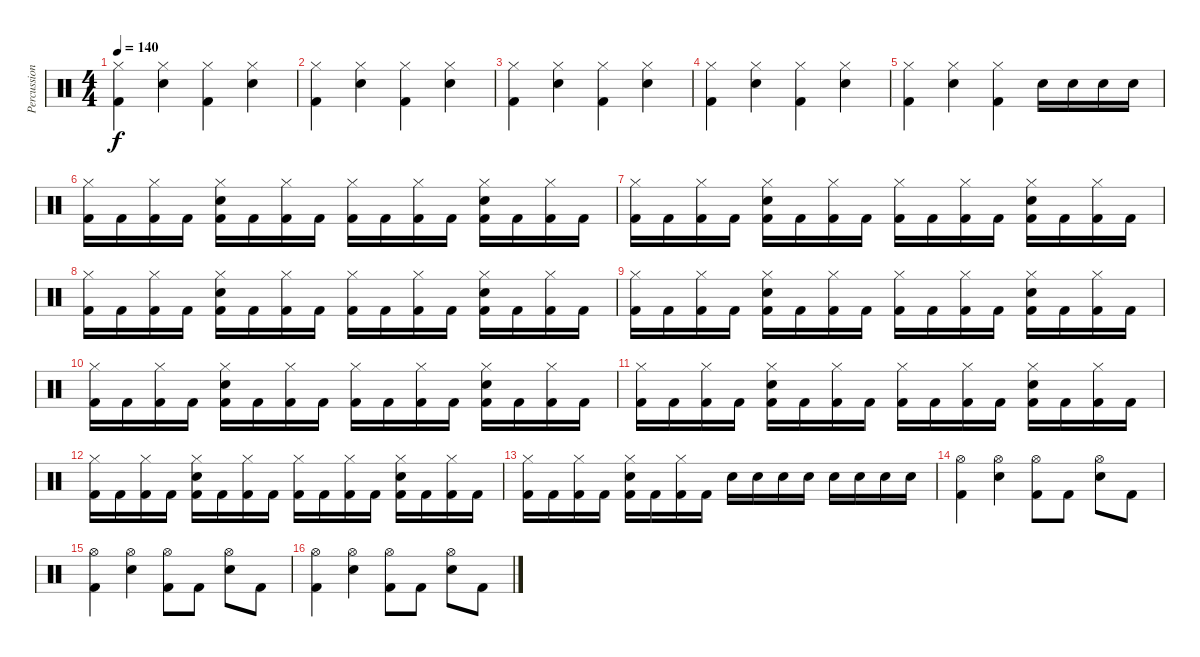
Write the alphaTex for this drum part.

\track ("Percussion" "Percussion") {instrument percussion}
\staff {score}
\articulation defaults
\ts (4 4)
\tempo 140
\clef neutral
\ks c
("Hi-Hat (closed)" "Kick (hit) 2").4{dy f} ("Hi-Hat (closed)" "Electric Snare (hit)").4 ("Hi-Hat (closed)" "Kick (hit) 2").4 ("Hi-Hat (closed)" "Electric Snare (hit)").4 |
("Hi-Hat (closed)" "Kick (hit) 2").4 ("Hi-Hat (closed)" "Electric Snare (hit)").4 ("Hi-Hat (closed)" "Kick (hit) 2").4 ("Hi-Hat (closed)" "Electric Snare (hit)").4 |
("Hi-Hat (closed)" "Kick (hit) 2").4 ("Hi-Hat (closed)" "Electric Snare (hit)").4 ("Hi-Hat (closed)" "Kick (hit) 2").4 ("Hi-Hat (closed)" "Electric Snare (hit)").4 |
("Hi-Hat (closed)" "Kick (hit) 2").4 ("Hi-Hat (closed)" "Electric Snare (hit)").4 ("Hi-Hat (closed)" "Kick (hit) 2").4 ("Hi-Hat (closed)" "Electric Snare (hit)").4 |
("Hi-Hat (closed)" "Kick (hit) 2").4 ("Hi-Hat (closed)" "Electric Snare (hit)").4 ("Hi-Hat (closed)" "Kick (hit) 2").4 "Electric Snare (hit)".16 "Electric Snare (hit)".16 "Electric Snare (hit)".16 "Electric Snare (hit)".16 |
("Hi-Hat (closed)" "Kick (hit) 2").16 "Kick (hit) 2".16 ("Hi-Hat (closed)" "Kick (hit) 2").16 "Kick (hit) 2".16 ("Hi-Hat (closed)" "Electric Snare (hit)" "Kick (hit) 2").16 "Kick (hit) 2".16 ("Hi-Hat (closed)" "Kick (hit) 2").16 "Kick (hit) 2".16 ("Hi-Hat (closed)" "Kick (hit) 2").16 "Kick (hit) 2".16 ("Hi-Hat (closed)" "Kick (hit) 2").16 "Kick (hit) 2".16 ("Hi-Hat (closed)" "Electric Snare (hit)" "Kick (hit) 2").16 "Kick (hit) 2".16 ("Hi-Hat (closed)" "Kick (hit) 2").16 "Kick (hit) 2".16 |
("Hi-Hat (closed)" "Kick (hit) 2").16 "Kick (hit) 2".16 ("Hi-Hat (closed)" "Kick (hit) 2").16 "Kick (hit) 2".16 ("Hi-Hat (closed)" "Electric Snare (hit)" "Kick (hit) 2").16 "Kick (hit) 2".16 ("Hi-Hat (closed)" "Kick (hit) 2").16 "Kick (hit) 2".16 ("Hi-Hat (closed)" "Kick (hit) 2").16 "Kick (hit) 2".16 ("Hi-Hat (closed)" "Kick (hit) 2").16 "Kick (hit) 2".16 ("Hi-Hat (closed)" "Electric Snare (hit)" "Kick (hit) 2").16 "Kick (hit) 2".16 ("Hi-Hat (closed)" "Kick (hit) 2").16 "Kick (hit) 2".16 |
("Hi-Hat (closed)" "Kick (hit) 2").16 "Kick (hit) 2".16 ("Hi-Hat (closed)" "Kick (hit) 2").16 "Kick (hit) 2".16 ("Hi-Hat (closed)" "Electric Snare (hit)" "Kick (hit) 2").16 "Kick (hit) 2".16 ("Hi-Hat (closed)" "Kick (hit) 2").16 "Kick (hit) 2".16 ("Hi-Hat (closed)" "Kick (hit) 2").16 "Kick (hit) 2".16 ("Hi-Hat (closed)" "Kick (hit) 2").16 "Kick (hit) 2".16 ("Hi-Hat (closed)" "Electric Snare (hit)" "Kick (hit) 2").16 "Kick (hit) 2".16 ("Hi-Hat (closed)" "Kick (hit) 2").16 "Kick (hit) 2".16 |
("Hi-Hat (closed)" "Kick (hit) 2").16 "Kick (hit) 2".16 ("Hi-Hat (closed)" "Kick (hit) 2").16 "Kick (hit) 2".16 ("Hi-Hat (closed)" "Electric Snare (hit)" "Kick (hit) 2").16 "Kick (hit) 2".16 ("Hi-Hat (closed)" "Kick (hit) 2").16 "Kick (hit) 2".16 ("Hi-Hat (closed)" "Kick (hit) 2").16 "Kick (hit) 2".16 ("Hi-Hat (closed)" "Kick (hit) 2").16 "Kick (hit) 2".16 ("Hi-Hat (closed)" "Electric Snare (hit)" "Kick (hit) 2").16 "Kick (hit) 2".16 ("Hi-Hat (closed)" "Kick (hit) 2").16 "Kick (hit) 2".16 |
("Hi-Hat (closed)" "Kick (hit) 2").16 "Kick (hit) 2".16 ("Hi-Hat (closed)" "Kick (hit) 2").16 "Kick (hit) 2".16 ("Hi-Hat (closed)" "Electric Snare (hit)" "Kick (hit) 2").16 "Kick (hit) 2".16 ("Hi-Hat (closed)" "Kick (hit) 2").16 "Kick (hit) 2".16 ("Hi-Hat (closed)" "Kick (hit) 2").16 "Kick (hit) 2".16 ("Hi-Hat (closed)" "Kick (hit) 2").16 "Kick (hit) 2".16 ("Hi-Hat (closed)" "Electric Snare (hit)" "Kick (hit) 2").16 "Kick (hit) 2".16 ("Hi-Hat (closed)" "Kick (hit) 2").16 "Kick (hit) 2".16 |
("Hi-Hat (closed)" "Kick (hit) 2").16 "Kick (hit) 2".16 ("Hi-Hat (closed)" "Kick (hit) 2").16 "Kick (hit) 2".16 ("Hi-Hat (closed)" "Electric Snare (hit)" "Kick (hit) 2").16 "Kick (hit) 2".16 ("Hi-Hat (closed)" "Kick (hit) 2").16 "Kick (hit) 2".16 ("Hi-Hat (closed)" "Kick (hit) 2").16 "Kick (hit) 2".16 ("Hi-Hat (closed)" "Kick (hit) 2").16 "Kick (hit) 2".16 ("Hi-Hat (closed)" "Electric Snare (hit)" "Kick (hit) 2").16 "Kick (hit) 2".16 ("Hi-Hat (closed)" "Kick (hit) 2").16 "Kick (hit) 2".16 |
("Hi-Hat (closed)" "Kick (hit) 2").16 "Kick (hit) 2".16 ("Hi-Hat (closed)" "Kick (hit) 2").16 "Kick (hit) 2".16 ("Hi-Hat (closed)" "Electric Snare (hit)" "Kick (hit) 2").16 "Kick (hit) 2".16 ("Hi-Hat (closed)" "Kick (hit) 2").16 "Kick (hit) 2".16 ("Hi-Hat (closed)" "Kick (hit) 2").16 "Kick (hit) 2".16 ("Hi-Hat (closed)" "Kick (hit) 2").16 "Kick (hit) 2".16 ("Hi-Hat (closed)" "Electric Snare (hit)" "Kick (hit) 2").16 "Kick (hit) 2".16 ("Hi-Hat (closed)" "Kick (hit) 2").16 "Kick (hit) 2".16 |
("Hi-Hat (closed)" "Kick (hit) 2").16 "Kick (hit) 2".16 ("Hi-Hat (closed)" "Kick (hit) 2").16 "Kick (hit) 2".16 ("Hi-Hat (closed)" "Electric Snare (hit)" "Kick (hit) 2").16 "Kick (hit) 2".16 ("Hi-Hat (closed)" "Kick (hit) 2").16 "Kick (hit) 2".16 "Electric Snare (hit)".16 "Electric Snare (hit)".16 "Electric Snare (hit)".16 "Electric Snare (hit)".16 "Electric Snare (hit)".16 "Electric Snare (hit)".16 "Electric Snare (hit)".16 "Electric Snare (hit)".16 |
("Hi-Hat (open)" "Kick (hit) 2").4 ("Hi-Hat (open)" "Electric Snare (hit)").4 ("Hi-Hat (open)" "Kick (hit) 2").8 "Kick (hit) 2".8 ("Hi-Hat (open)" "Electric Snare (hit)").8 "Kick (hit) 2".8 |
("Hi-Hat (open)" "Kick (hit) 2").4 ("Hi-Hat (open)" "Electric Snare (hit)").4 ("Hi-Hat (open)" "Kick (hit) 2").8 "Kick (hit) 2".8 ("Hi-Hat (open)" "Electric Snare (hit)").8 "Kick (hit) 2".8 |
("Hi-Hat (open)" "Kick (hit) 2").4 ("Hi-Hat (open)" "Electric Snare (hit)").4 ("Hi-Hat (open)" "Kick (hit) 2").8 "Kick (hit) 2".8 ("Hi-Hat (open)" "Electric Snare (hit)").8 "Kick (hit) 2".8
